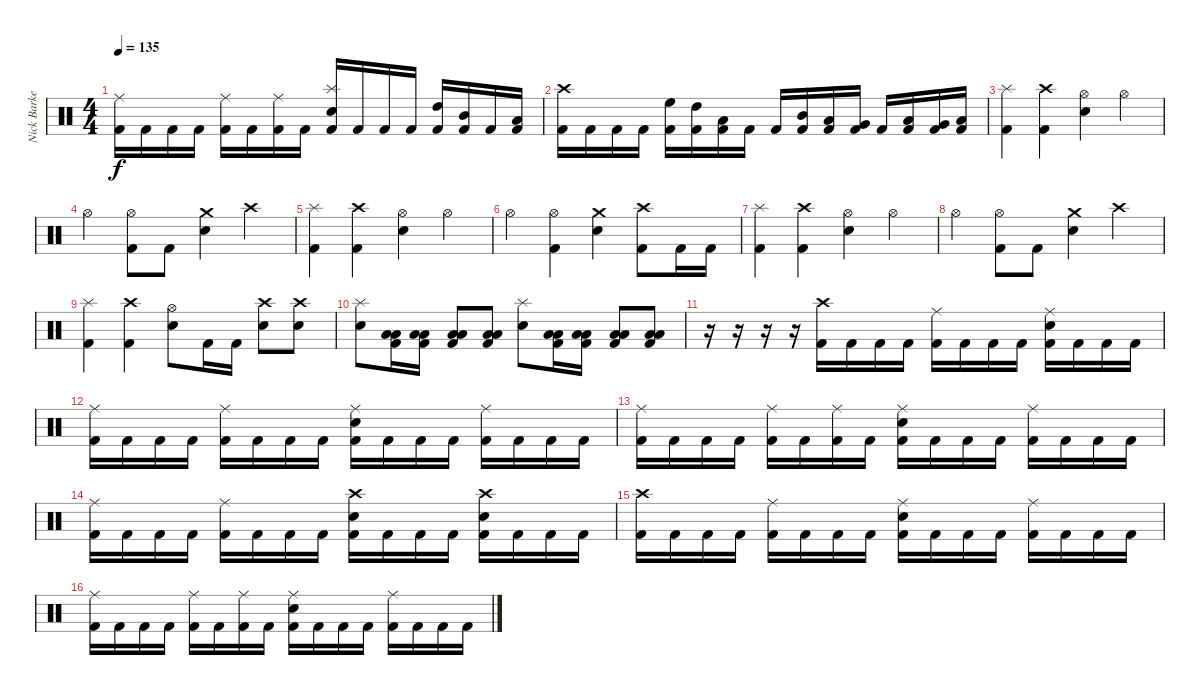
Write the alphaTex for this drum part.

\track ("Nick Barker" "Nick Barke") {instrument percussion}
\staff {score}
\articulation defaults
\ts (4 4)
\tempo 135
\clef neutral
\ks c
("Ride (middle)" "Kick (hit) 2").16{dy f} "Kick (hit) 2".16 "Kick (hit) 2".16 "Kick (hit) 2".16 ("Ride (middle)" "Kick (hit) 2").16 "Kick (hit) 2".16 ("Ride (middle)" "Kick (hit) 2").16 "Kick (hit) 2".16 ("Splash (hit)" "Electric Snare (hit)" "Kick (hit) 2").16 "Kick (hit) 2".16 "Kick (hit) 2".16 "Kick (hit) 2".16 ("High Tom (hit)" "Kick (hit) 2").16 ("Mid Tom (hit)" "Kick (hit) 2").16 "Kick (hit) 2".16 ("Low Tom (hit)" "Kick (hit) 2").16 |
("Crash high (hit)" "Kick (hit) 2").16 "Kick (hit) 2".16 "Kick (hit) 2".16 "Kick (hit) 2".16 ("High Floor Tom (hit)" "Kick (hit) 2").16 ("High Tom (hit)" "Kick (hit) 2").16 ("Low Tom (hit)" "Kick (hit) 2").16 "Kick (hit) 2".16 "Kick (hit) 2".16 ("Mid Tom (hit)" "Kick (hit) 2").16 ("Low Tom (hit)" "Kick (hit) 2").16 ("Very Low Tom (hit)" "Kick (hit) 2").16 "Kick (hit) 2".16 ("Low Tom (hit)" "Kick (hit) 2").16 ("Very Low Tom (hit)" "Kick (hit) 2").16 ("Low Floor Tom (hit)" "Kick (hit) 2").16 |
("Splash (hit)" "Kick (hit) 2").4 ("Crash high (hit)" "Kick (hit) 2").4 ("Hi-Hat (open)" "Electric Snare (hit)").4 "Hi-Hat (open)".4 |
"Hi-Hat (open)".4 ("Hi-Hat (open)" "Kick (hit) 2").8 "Kick (hit) 2".8 ("Crash medium (hit)" "Electric Snare (hit)").4 "Crash high (hit)".4 |
("Splash (hit)" "Kick (hit) 2").4 ("Crash high (hit)" "Kick (hit) 2").4 ("Hi-Hat (open)" "Electric Snare (hit)").4 "Hi-Hat (open)".4 |
"Hi-Hat (open)".4 ("Hi-Hat (open)" "Kick (hit) 2").4 ("Crash medium (hit)" "Electric Snare (hit)").4 ("Crash high (hit)" "Kick (hit) 2").8 "Kick (hit) 2".16 "Kick (hit) 2".16 |
("Splash (hit)" "Kick (hit) 2").4 ("Crash high (hit)" "Kick (hit) 2").4 ("Hi-Hat (open)" "Electric Snare (hit)").4 "Hi-Hat (open)".4 |
"Hi-Hat (open)".4 ("Hi-Hat (open)" "Kick (hit) 2").8 "Kick (hit) 2".8 ("Crash medium (hit)" "Electric Snare (hit)").4 "Crash high (hit)".4 |
("Splash (hit)" "Kick (hit) 2").4 ("Crash high (hit)" "Kick (hit) 2").4 ("Hi-Hat (open)" "Electric Snare (hit)").8 "Kick (hit) 2".16 "Kick (hit) 2".16 ("Crash high (hit)" "Electric Snare (hit)").8 ("Crash high (hit)" "Electric Snare (hit)").8 |
("Splash (hit)" "Electric Snare (hit)").8 ("Low Floor Tom (hit)" "Low Tom (hit)" "Kick (hit) 2").16 ("Low Floor Tom (hit)" "Low Tom (hit)" "Kick (hit) 2").16 ("Low Floor Tom (hit)" "Low Tom (hit)" "Kick (hit) 2").8 ("Low Floor Tom (hit)" "Low Tom (hit)" "Kick (hit) 2").8 ("Splash (hit)" "Electric Snare (hit)").8 ("Low Floor Tom (hit)" "Low Tom (hit)" "Kick (hit) 2").16 ("Low Floor Tom (hit)" "Low Tom (hit)" "Kick (hit) 2").16 ("Low Floor Tom (hit)" "Low Tom (hit)" "Kick (hit) 2").8 ("Low Floor Tom (hit)" "Low Tom (hit)" "Kick (hit) 2").8 |
r.16 r.16 r.16 r.16 ("Crash high (hit)" "Kick (hit) 2").16 "Kick (hit) 2".16 "Kick (hit) 2".16 "Kick (hit) 2".16 ("Ride (middle)" "Kick (hit) 2").16 "Kick (hit) 2".16 "Kick (hit) 2".16 "Kick (hit) 2".16 ("Ride (middle)" "Electric Snare (hit)" "Kick (hit) 2").16 "Kick (hit) 2".16 "Kick (hit) 2".16 "Kick (hit) 2".16 |
("Ride (middle)" "Kick (hit) 2").16 "Kick (hit) 2".16 "Kick (hit) 2".16 "Kick (hit) 2".16 ("Ride (middle)" "Kick (hit) 2").16 "Kick (hit) 2".16 "Kick (hit) 2".16 "Kick (hit) 2".16 ("Ride (middle)" "Electric Snare (hit)" "Kick (hit) 2").16 "Kick (hit) 2".16 "Kick (hit) 2".16 "Kick (hit) 2".16 ("Ride (middle)" "Kick (hit) 2").16 "Kick (hit) 2".16 "Kick (hit) 2".16 "Kick (hit) 2".16 |
("Ride (middle)" "Kick (hit) 2").16 "Kick (hit) 2".16 "Kick (hit) 2".16 "Kick (hit) 2".16 ("Ride (middle)" "Kick (hit) 2").16 "Kick (hit) 2".16 ("Ride (middle)" "Kick (hit) 2").16 "Kick (hit) 2".16 ("Ride (middle)" "Electric Snare (hit)" "Kick (hit) 2").16 "Kick (hit) 2".16 "Kick (hit) 2".16 "Kick (hit) 2".16 ("Ride (middle)" "Kick (hit) 2").16 "Kick (hit) 2".16 "Kick (hit) 2".16 "Kick (hit) 2".16 |
("Ride (middle)" "Kick (hit) 2").16 "Kick (hit) 2".16 "Kick (hit) 2".16 "Kick (hit) 2".16 ("Ride (middle)" "Kick (hit) 2").16 "Kick (hit) 2".16 "Kick (hit) 2".16 "Kick (hit) 2".16 ("Crash high (hit)" "Electric Snare (hit)" "Kick (hit) 2").16 "Kick (hit) 2".16 "Kick (hit) 2".16 "Kick (hit) 2".16 ("Crash high (hit)" "Electric Snare (hit)" "Kick (hit) 2").16 "Kick (hit) 2".16 "Kick (hit) 2".16 "Kick (hit) 2".16 |
("Crash high (hit)" "Kick (hit) 2").16 "Kick (hit) 2".16 "Kick (hit) 2".16 "Kick (hit) 2".16 ("Ride (middle)" "Kick (hit) 2").16 "Kick (hit) 2".16 "Kick (hit) 2".16 "Kick (hit) 2".16 ("Ride (middle)" "Electric Snare (hit)" "Kick (hit) 2").16 "Kick (hit) 2".16 "Kick (hit) 2".16 "Kick (hit) 2".16 ("Ride (middle)" "Kick (hit) 2").16 "Kick (hit) 2".16 "Kick (hit) 2".16 "Kick (hit) 2".16 |
("Ride (middle)" "Kick (hit) 2").16 "Kick (hit) 2".16 "Kick (hit) 2".16 "Kick (hit) 2".16 ("Ride (middle)" "Kick (hit) 2").16 "Kick (hit) 2".16 ("Ride (middle)" "Kick (hit) 2").16 "Kick (hit) 2".16 ("Ride (middle)" "Electric Snare (hit)" "Kick (hit) 2").16 "Kick (hit) 2".16 "Kick (hit) 2".16 "Kick (hit) 2".16 ("Ride (middle)" "Kick (hit) 2").16 "Kick (hit) 2".16 "Kick (hit) 2".16 "Kick (hit) 2".16
